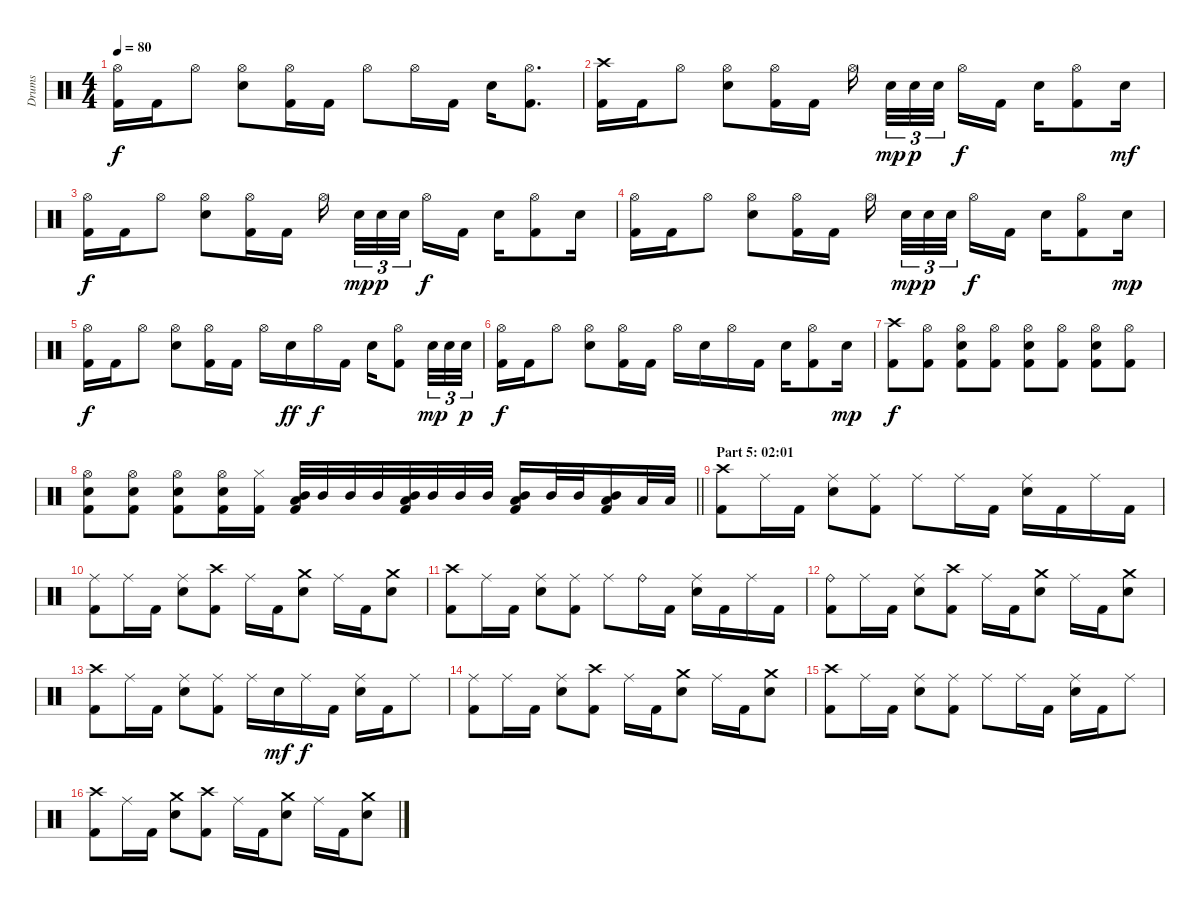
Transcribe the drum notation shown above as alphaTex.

\track ("Drums" "Drums") {instrument percussion}
\staff {score}
\articulation defaults
\ts (4 4)
\tempo 80
\clef neutral
\ks c
("Hi-Hat (open)" "Kick (hit) 2").16{dy f} "Kick (hit) 2".16 "Hi-Hat (open)".8 ("Hi-Hat (open)" "Electric Snare (hit)").8 ("Hi-Hat (open)" "Kick (hit) 2").16 "Kick (hit) 2".16 "Hi-Hat (open)".8 "Hi-Hat (open)".16 "Kick (hit) 2".16 "Electric Snare (hit)".16 ("Hi-Hat (open)" "Kick (hit) 2").8{d} |
("Crash high (hit)" "Kick (hit) 2").16 "Kick (hit) 2".16 "Hi-Hat (open)".8 ("Hi-Hat (open)" "Electric Snare (hit)").8 ("Hi-Hat (open)" "Kick (hit) 2").16 "Kick (hit) 2".16 "Hi-Hat (open)".16{beam splitsecondary} "Electric Snare (hit)".32{tu (3 2) dy mp} "Electric Snare (hit)".32{tu (3 2) dy p} "Electric Snare (hit)".32{tu (3 2) beam splitsecondary} "Hi-Hat (open)".16{dy f} "Kick (hit) 2".16 "Electric Snare (hit)".16 ("Hi-Hat (open)" "Kick (hit) 2").8 "Electric Snare (hit)".16{dy mf} |
("Hi-Hat (open)" "Kick (hit) 2").16{dy f} "Kick (hit) 2".16 "Hi-Hat (open)".8 ("Hi-Hat (open)" "Electric Snare (hit)").8 ("Hi-Hat (open)" "Kick (hit) 2").16 "Kick (hit) 2".16 "Hi-Hat (open)".16{beam splitsecondary} "Electric Snare (hit)".32{tu (3 2) dy mp} "Electric Snare (hit)".32{tu (3 2) dy p} "Electric Snare (hit)".32{tu (3 2) beam splitsecondary} "Hi-Hat (open)".16{dy f} "Kick (hit) 2".16 "Electric Snare (hit)".16 ("Hi-Hat (open)" "Kick (hit) 2").8 "Electric Snare (hit)".16 |
("Hi-Hat (open)" "Kick (hit) 2").16 "Kick (hit) 2".16 "Hi-Hat (open)".8 ("Hi-Hat (open)" "Electric Snare (hit)").8 ("Hi-Hat (open)" "Kick (hit) 2").16 "Kick (hit) 2".16 "Hi-Hat (open)".16{beam splitsecondary} "Electric Snare (hit)".32{tu (3 2) dy mp} "Electric Snare (hit)".32{tu (3 2) dy p} "Electric Snare (hit)".32{tu (3 2) beam splitsecondary} "Hi-Hat (open)".16{dy f} "Kick (hit) 2".16 "Electric Snare (hit)".16 ("Hi-Hat (open)" "Kick (hit) 2").8 "Electric Snare (hit)".16{dy mp} |
("Hi-Hat (open)" "Kick (hit) 2").16{dy f} "Kick (hit) 2".16 "Hi-Hat (open)".8 ("Hi-Hat (open)" "Electric Snare (hit)").8 ("Hi-Hat (open)" "Kick (hit) 2").16 "Kick (hit) 2".16 "Hi-Hat (open)".16 "Electric Snare (hit)".16{dy ff} "Hi-Hat (open)".16{dy f} "Kick (hit) 2".16 "Electric Snare (hit)".16 ("Hi-Hat (open)" "Kick (hit) 2").8 "Electric Snare (hit)".32{tu (3 2) dy mp} "Electric Snare (hit)".32{tu (3 2)} "Electric Snare (hit)".32{tu (3 2) dy p} |
("Hi-Hat (open)" "Kick (hit) 2").16{dy f} "Kick (hit) 2".16 "Hi-Hat (open)".8 ("Hi-Hat (open)" "Electric Snare (hit)").8 ("Hi-Hat (open)" "Kick (hit) 2").16 "Kick (hit) 2".16 "Hi-Hat (open)".16 "Electric Snare (hit)".16 "Hi-Hat (open)".16 "Kick (hit) 2".16 "Electric Snare (hit)".16 ("Hi-Hat (open)" "Kick (hit) 2").8 "Electric Snare (hit)".16{dy mp} |
("Crash high (hit)" "Kick (hit) 2").8{dy f} ("Hi-Hat (open)" "Kick (hit) 2").8 ("Hi-Hat (open)" "Electric Snare (hit)" "Kick (hit) 2").8 ("Hi-Hat (open)" "Kick (hit) 2").8 ("Hi-Hat (open)" "Electric Snare (hit)" "Kick (hit) 2").8 ("Hi-Hat (open)" "Kick (hit) 2").8 ("Hi-Hat (open)" "Electric Snare (hit)" "Kick (hit) 2").8 ("Hi-Hat (open)" "Kick (hit) 2").8 |
\barLineRight lightlight
("Hi-Hat (open)" "Electric Snare (hit)" "Kick (hit) 2").8 ("Hi-Hat (open)" "Electric Snare (hit)" "Kick (hit) 2").8 ("Hi-Hat (open)" "Electric Snare (hit)" "Kick (hit) 2").8 ("Hi-Hat (open)" "Electric Snare (hit)" "Kick (hit) 2").16 ("Hi-Hat (closed)" "Kick (hit) 2").16 ("Low Tom (hit)" "Mid Tom (hit)" "Kick (hit) 2").32 "Mid Tom (hit)".32 "Mid Tom (hit)".32 "Mid Tom (hit)".32 ("Low Tom (hit)" "Mid Tom (hit)" "Kick (hit) 2").32 "Mid Tom (hit)".32 "Mid Tom (hit)".32 "Mid Tom (hit)".32 ("Low Tom (hit)" "Mid Tom (hit)" "Kick (hit) 2").16 "Mid Tom (hit)".32 "Mid Tom (hit)".32 ("Low Tom (hit)" "Mid Tom (hit)" "Kick (hit) 2").16 "Low Tom (hit)".32 "Low Tom (hit)".32 |
\section ("" "Part 5: 02:01")
("Crash high (hit)" "Kick (hit) 2").8 "Ride (middle)".16 "Kick (hit) 2".16 ("Ride (middle)" "Electric Snare (hit)").8 ("Ride (middle)" "Kick (hit) 2").8 "Ride (middle)".8 "Ride (middle)".16 "Kick (hit) 2".16 ("Ride (middle)" "Electric Snare (hit)").16 "Kick (hit) 2".16 "Ride (middle)".16 "Kick (hit) 2".16 |
("Ride (middle)" "Kick (hit) 2").8 "Ride (middle)".16 "Kick (hit) 2".16 ("Ride (middle)" "Electric Snare (hit)").8 ("Crash high (hit)" "Kick (hit) 2").8 "Ride (middle)".16 "Kick (hit) 2".16 ("Crash medium (hit)" "Electric Snare (hit)").8 "Ride (middle)".16 "Kick (hit) 2".16 ("Crash medium (hit)" "Electric Snare (hit)").8 |
("Crash high (hit)" "Kick (hit) 2").8 "Ride (middle)".16 "Kick (hit) 2".16 ("Ride (middle)" "Electric Snare (hit)").8 ("Ride (middle)" "Kick (hit) 2").8 "Ride (middle)".8 "Ride (bell)".16 "Kick (hit) 2".16 ("Ride (middle)" "Electric Snare (hit)").16 "Kick (hit) 2".16 "Ride (middle)".16 "Kick (hit) 2".16 |
("Ride (bell)" "Kick (hit) 2").8 "Ride (middle)".16 "Kick (hit) 2".16 ("Ride (middle)" "Electric Snare (hit)").8 ("Crash high (hit)" "Kick (hit) 2").8 "Ride (middle)".16 "Kick (hit) 2".16 ("Crash medium (hit)" "Electric Snare (hit)").8 "Ride (middle)".16 "Kick (hit) 2".16 ("Crash medium (hit)" "Electric Snare (hit)").8 |
("Crash high (hit)" "Kick (hit) 2").8 "Ride (middle)".16 "Kick (hit) 2".16 ("Ride (middle)" "Electric Snare (hit)").8 ("Ride (middle)" "Kick (hit) 2").8 "Ride (middle)".16 "Electric Snare (hit)".16{dy mf} "Ride (middle)".16{dy f} "Kick (hit) 2".16 ("Ride (middle)" "Electric Snare (hit)").16 "Kick (hit) 2".16 "Ride (middle)".8 |
("Ride (middle)" "Kick (hit) 2").8 "Ride (middle)".16 "Kick (hit) 2".16 ("Ride (middle)" "Electric Snare (hit)").8 ("Crash high (hit)" "Kick (hit) 2").8 "Ride (middle)".16 "Kick (hit) 2".16 ("Crash medium (hit)" "Electric Snare (hit)").8 "Ride (middle)".16 "Kick (hit) 2".16 ("Crash medium (hit)" "Electric Snare (hit)").8 |
("Crash high (hit)" "Kick (hit) 2").8 "Ride (middle)".16 "Kick (hit) 2".16 ("Ride (middle)" "Electric Snare (hit)").8 ("Ride (middle)" "Kick (hit) 2").8 "Ride (middle)".8 "Ride (middle)".16 "Kick (hit) 2".16 ("Ride (middle)" "Electric Snare (hit)").16 "Kick (hit) 2".16 "Ride (middle)".8 |
("Crash high (hit)" "Kick (hit) 2").8 "Ride (middle)".16 "Kick (hit) 2".16 ("Crash medium (hit)" "Electric Snare (hit)").8 ("Crash high (hit)" "Kick (hit) 2").8 "Ride (middle)".16 "Kick (hit) 2".16 ("Crash medium (hit)" "Electric Snare (hit)").8 "Ride (middle)".16 "Kick (hit) 2".16 ("Crash medium (hit)" "Electric Snare (hit)").8
